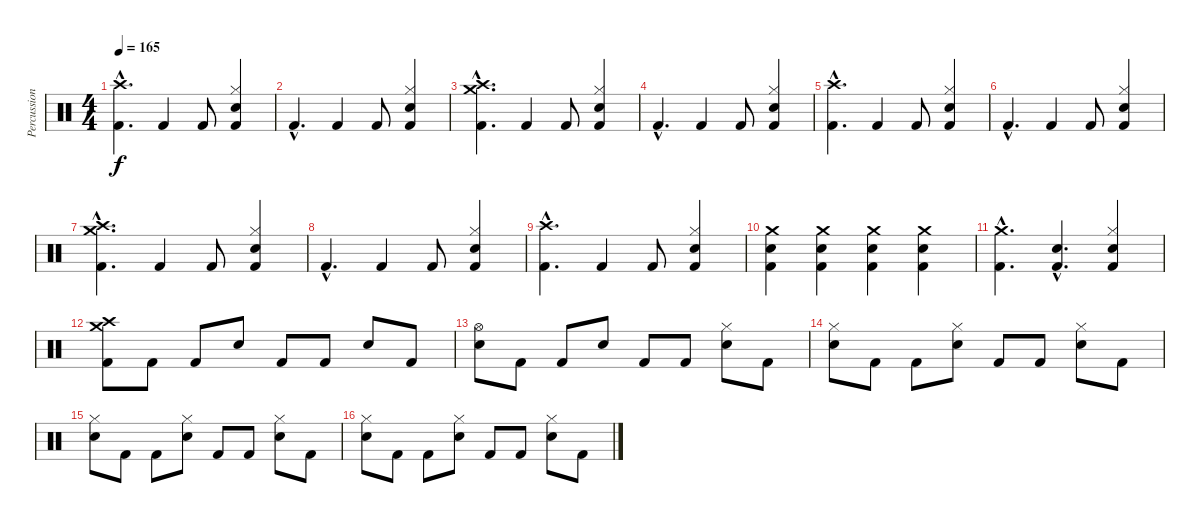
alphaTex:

\track ("Percussion" "Percussion") {instrument percussion}
\staff {score}
\articulation defaults
\ts (4 4)
\tempo 165
\clef neutral
\ks c
("Crash high (hit)"{hac} "Kick (hit) 2"{hac}).4{d dy f} "Kick (hit) 2".4 "Kick (hit) 2".8 ("Hi-Hat (closed)" "Electric Snare (hit)" "Kick (hit) 2").4 |
"Kick (hit) 2"{hac}.4{d} "Kick (hit) 2".4 "Kick (hit) 2".8 ("Hi-Hat (closed)" "Electric Snare (hit)" "Kick (hit) 2").4 |
("Crash high (hit)"{hac} "Crash medium (hit)"{hac} "Kick (hit) 2"{hac}).4{d} "Kick (hit) 2".4 "Kick (hit) 2".8 ("Hi-Hat (closed)" "Electric Snare (hit)" "Kick (hit) 2").4 |
"Kick (hit) 2"{hac}.4{d} "Kick (hit) 2".4 "Kick (hit) 2".8 ("Hi-Hat (closed)" "Electric Snare (hit)" "Kick (hit) 2").4 |
("Crash high (hit)"{hac} "Kick (hit) 2"{hac}).4{d} "Kick (hit) 2".4 "Kick (hit) 2".8 ("Hi-Hat (closed)" "Electric Snare (hit)" "Kick (hit) 2").4 |
"Kick (hit) 2"{hac}.4{d} "Kick (hit) 2".4 "Kick (hit) 2".8 ("Hi-Hat (closed)" "Electric Snare (hit)" "Kick (hit) 2").4 |
("Crash high (hit)"{hac} "Crash medium (hit)"{hac} "Kick (hit) 2"{hac}).4{d} "Kick (hit) 2".4 "Kick (hit) 2".8 ("Hi-Hat (closed)" "Electric Snare (hit)" "Kick (hit) 2").4 |
"Kick (hit) 2"{hac}.4{d} "Kick (hit) 2".4 "Kick (hit) 2".8 ("Hi-Hat (closed)" "Electric Snare (hit)" "Kick (hit) 2").4 |
("Crash high (hit)"{hac} "Kick (hit) 2"{hac}).4{d} "Kick (hit) 2".4 "Kick (hit) 2".8 ("Hi-Hat (closed)" "Electric Snare (hit)" "Kick (hit) 2").4 |
("Crash medium (hit)" "Electric Snare (hit)" "Kick (hit) 2").4 ("Crash medium (hit)" "Electric Snare (hit)" "Kick (hit) 2").4 ("Crash medium (hit)" "Electric Snare (hit)" "Kick (hit) 2").4 ("Crash medium (hit)" "Electric Snare (hit)" "Kick (hit) 2").4 |
("Crash medium (hit)"{hac} "Kick (hit) 2"{hac}).4{d} ("Electric Snare (hit)"{hac} "Kick (hit) 2"{hac}).4{d} ("Hi-Hat (closed)" "Electric Snare (hit)" "Kick (hit) 2").4 |
("Crash high (hit)" "Crash medium (hit)" "Kick (hit) 2").8 "Kick (hit) 2".8 "Kick (hit) 2".8 "Electric Snare (hit)".8 "Kick (hit) 2".8 "Kick (hit) 2".8 "Electric Snare (hit)".8 "Kick (hit) 2".8 |
("Hi-Hat (open)" "Electric Snare (hit)").8 "Kick (hit) 2".8 "Kick (hit) 2".8 "Electric Snare (hit)".8 "Kick (hit) 2".8 "Kick (hit) 2".8 ("Hi-Hat (closed)" "Electric Snare (hit)").8 "Kick (hit) 2".8 |
("Hi-Hat (closed)" "Electric Snare (hit)").8 "Kick (hit) 2".8 "Kick (hit) 2".8 ("Hi-Hat (closed)" "Electric Snare (hit)").8 "Kick (hit) 2".8 "Kick (hit) 2".8 ("Hi-Hat (closed)" "Electric Snare (hit)").8 "Kick (hit) 2".8 |
("Hi-Hat (closed)" "Electric Snare (hit)").8 "Kick (hit) 2".8 "Kick (hit) 2".8 ("Hi-Hat (closed)" "Electric Snare (hit)").8 "Kick (hit) 2".8 "Kick (hit) 2".8 ("Hi-Hat (closed)" "Electric Snare (hit)").8 "Kick (hit) 2".8 |
("Hi-Hat (closed)" "Electric Snare (hit)").8 "Kick (hit) 2".8 "Kick (hit) 2".8 ("Hi-Hat (closed)" "Electric Snare (hit)").8 "Kick (hit) 2".8 "Kick (hit) 2".8 ("Hi-Hat (closed)" "Electric Snare (hit)").8 "Kick (hit) 2".8
